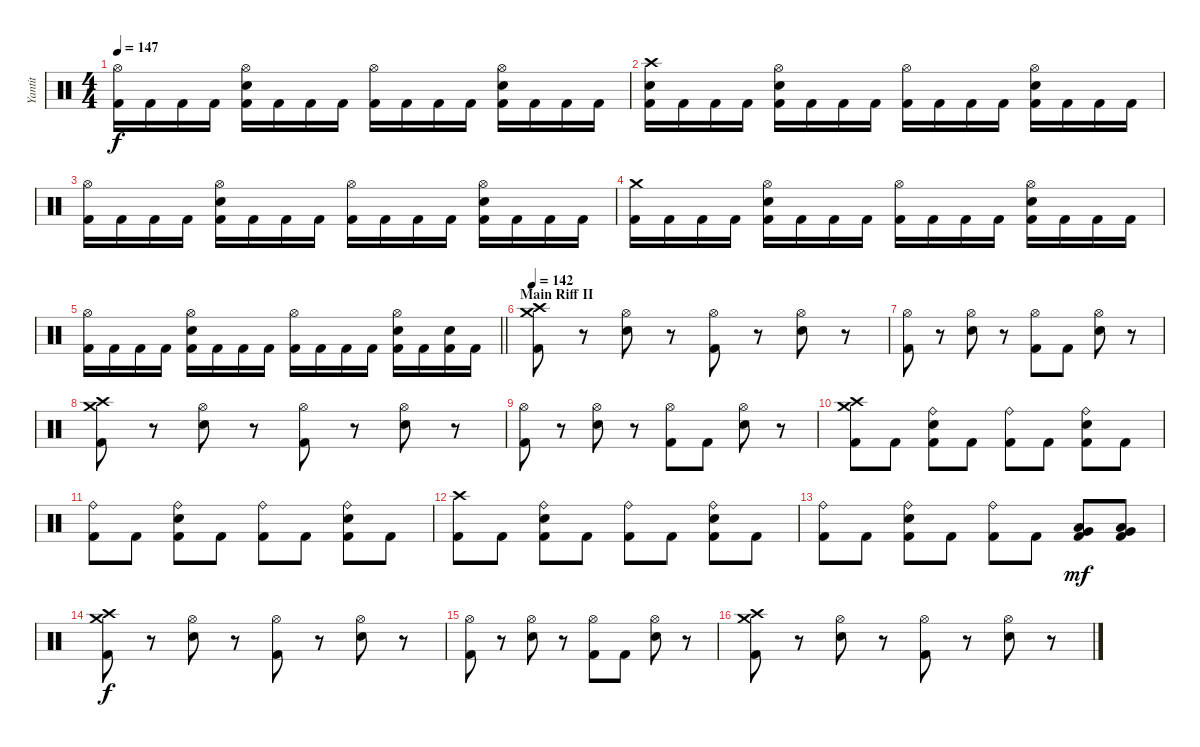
\track ("Yantit" "Yantit") {instrument percussion}
\staff {score}
\articulation defaults
\ts (4 4)
\tempo 147
\clef neutral
\ks c
("Hi-Hat (open)" "Kick (hit) 2").16{dy f} "Kick (hit) 2".16 "Kick (hit) 2".16 "Kick (hit) 2".16 ("Hi-Hat (open)" "Electric Snare (hit)" "Kick (hit) 2").16 "Kick (hit) 2".16 "Kick (hit) 2".16 "Kick (hit) 2".16 ("Hi-Hat (open)" "Kick (hit) 2").16 "Kick (hit) 2".16 "Kick (hit) 2".16 "Kick (hit) 2".16 ("Hi-Hat (open)" "Electric Snare (hit)" "Kick (hit) 2").16 "Kick (hit) 2".16 "Kick (hit) 2".16 "Kick (hit) 2".16 |
("Crash high (hit)" "Electric Snare (hit)" "Kick (hit) 2").16 "Kick (hit) 2".16 "Kick (hit) 2".16 "Kick (hit) 2".16 ("Hi-Hat (open)" "Electric Snare (hit)" "Kick (hit) 2").16 "Kick (hit) 2".16 "Kick (hit) 2".16 "Kick (hit) 2".16 ("Hi-Hat (open)" "Kick (hit) 2").16 "Kick (hit) 2".16 "Kick (hit) 2".16 "Kick (hit) 2".16 ("Hi-Hat (open)" "Electric Snare (hit)" "Kick (hit) 2").16 "Kick (hit) 2".16 "Kick (hit) 2".16 "Kick (hit) 2".16 |
("Hi-Hat (open)" "Kick (hit) 2").16 "Kick (hit) 2".16 "Kick (hit) 2".16 "Kick (hit) 2".16 ("Hi-Hat (open)" "Electric Snare (hit)" "Kick (hit) 2").16 "Kick (hit) 2".16 "Kick (hit) 2".16 "Kick (hit) 2".16 ("Hi-Hat (open)" "Kick (hit) 2").16 "Kick (hit) 2".16 "Kick (hit) 2".16 "Kick (hit) 2".16 ("Hi-Hat (open)" "Electric Snare (hit)" "Kick (hit) 2").16 "Kick (hit) 2".16 "Kick (hit) 2".16 "Kick (hit) 2".16 |
("Crash medium (hit)" "Kick (hit) 2").16 "Kick (hit) 2".16 "Kick (hit) 2".16 "Kick (hit) 2".16 ("Hi-Hat (open)" "Electric Snare (hit)" "Kick (hit) 2").16 "Kick (hit) 2".16 "Kick (hit) 2".16 "Kick (hit) 2".16 ("Hi-Hat (open)" "Kick (hit) 2").16 "Kick (hit) 2".16 "Kick (hit) 2".16 "Kick (hit) 2".16 ("Hi-Hat (open)" "Electric Snare (hit)" "Kick (hit) 2").16 "Kick (hit) 2".16 "Kick (hit) 2".16 "Kick (hit) 2".16 |
\barLineRight lightlight
("Hi-Hat (open)" "Kick (hit) 2").16 "Kick (hit) 2".16 "Kick (hit) 2".16 "Kick (hit) 2".16 ("Hi-Hat (open)" "Electric Snare (hit)" "Kick (hit) 2").16 "Kick (hit) 2".16 "Kick (hit) 2".16 "Kick (hit) 2".16 ("Hi-Hat (open)" "Kick (hit) 2").16 "Kick (hit) 2".16 "Kick (hit) 2".16 "Kick (hit) 2".16 ("Hi-Hat (open)" "Electric Snare (hit)" "Kick (hit) 2").16 "Kick (hit) 2".16 ("Electric Snare (hit)" "Kick (hit) 2").16 "Kick (hit) 2".16 |
\section ("" "Main Riff II")
\tempo 142
("Crash medium (hit)" "Crash high (hit)" "Kick (hit) 2").8 r.8 ("Hi-Hat (open)" "Electric Snare (hit)").8 r.8 ("Hi-Hat (open)" "Kick (hit) 2").8 r.8 ("Hi-Hat (open)" "Electric Snare (hit)").8 r.8 |
("Hi-Hat (open)" "Kick (hit) 2").8 r.8 ("Hi-Hat (open)" "Electric Snare (hit)").8 r.8 ("Hi-Hat (open)" "Kick (hit) 2").8 "Kick (hit) 2".8 ("Hi-Hat (open)" "Electric Snare (hit)").8 r.8 |
("Crash medium (hit)" "Crash high (hit)" "Kick (hit) 2").8 r.8 ("Hi-Hat (open)" "Electric Snare (hit)").8 r.8 ("Hi-Hat (open)" "Kick (hit) 2").8 r.8 ("Hi-Hat (open)" "Electric Snare (hit)").8 r.8 |
("Hi-Hat (open)" "Kick (hit) 2").8 r.8 ("Hi-Hat (open)" "Electric Snare (hit)").8 r.8 ("Hi-Hat (open)" "Kick (hit) 2").8 "Kick (hit) 2".8 ("Hi-Hat (open)" "Electric Snare (hit)").8 r.8 |
("Crash medium (hit)" "Crash high (hit)" "Kick (hit) 2").8 "Kick (hit) 2".8 ("Ride (bell)" "Electric Snare (hit)" "Kick (hit) 2").8 "Kick (hit) 2".8 ("Ride (bell)" "Kick (hit) 2").8 "Kick (hit) 2".8 ("Ride (bell)" "Electric Snare (hit)" "Kick (hit) 2").8 "Kick (hit) 2".8 |
("Ride (bell)" "Kick (hit) 2").8 "Kick (hit) 2".8 ("Ride (bell)" "Electric Snare (hit)" "Kick (hit) 2").8 "Kick (hit) 2".8 ("Ride (bell)" "Kick (hit) 2").8 "Kick (hit) 2".8 ("Ride (bell)" "Electric Snare (hit)" "Kick (hit) 2").8 "Kick (hit) 2".8 |
("Crash high (hit)" "Kick (hit) 2").8 "Kick (hit) 2".8 ("Ride (bell)" "Electric Snare (hit)" "Kick (hit) 2").8 "Kick (hit) 2".8 ("Ride (bell)" "Kick (hit) 2").8 "Kick (hit) 2".8 ("Ride (bell)" "Electric Snare (hit)" "Kick (hit) 2").8 "Kick (hit) 2".8 |
("Ride (bell)" "Kick (hit) 2").8 "Kick (hit) 2".8 ("Ride (bell)" "Electric Snare (hit)" "Kick (hit) 2").8 "Kick (hit) 2".8 ("Ride (bell)" "Kick (hit) 2").8 "Kick (hit) 2".8 ("Very Low Tom (hit)" "Low Floor Tom (hit)" "Kick (hit) 2").8{dy mf} ("Very Low Tom (hit)" "Low Floor Tom (hit)" "Kick (hit) 2").8 |
("Crash medium (hit)" "Crash high (hit)" "Kick (hit) 2").8{dy f} r.8 ("Hi-Hat (open)" "Electric Snare (hit)").8 r.8 ("Hi-Hat (open)" "Kick (hit) 2").8 r.8 ("Hi-Hat (open)" "Electric Snare (hit)").8 r.8 |
("Hi-Hat (open)" "Kick (hit) 2").8 r.8 ("Hi-Hat (open)" "Electric Snare (hit)").8 r.8 ("Hi-Hat (open)" "Kick (hit) 2").8 "Kick (hit) 2".8 ("Hi-Hat (open)" "Electric Snare (hit)").8 r.8 |
("Crash medium (hit)" "Crash high (hit)" "Kick (hit) 2").8 r.8 ("Hi-Hat (open)" "Electric Snare (hit)").8 r.8 ("Hi-Hat (open)" "Kick (hit) 2").8 r.8 ("Hi-Hat (open)" "Electric Snare (hit)").8 r.8
